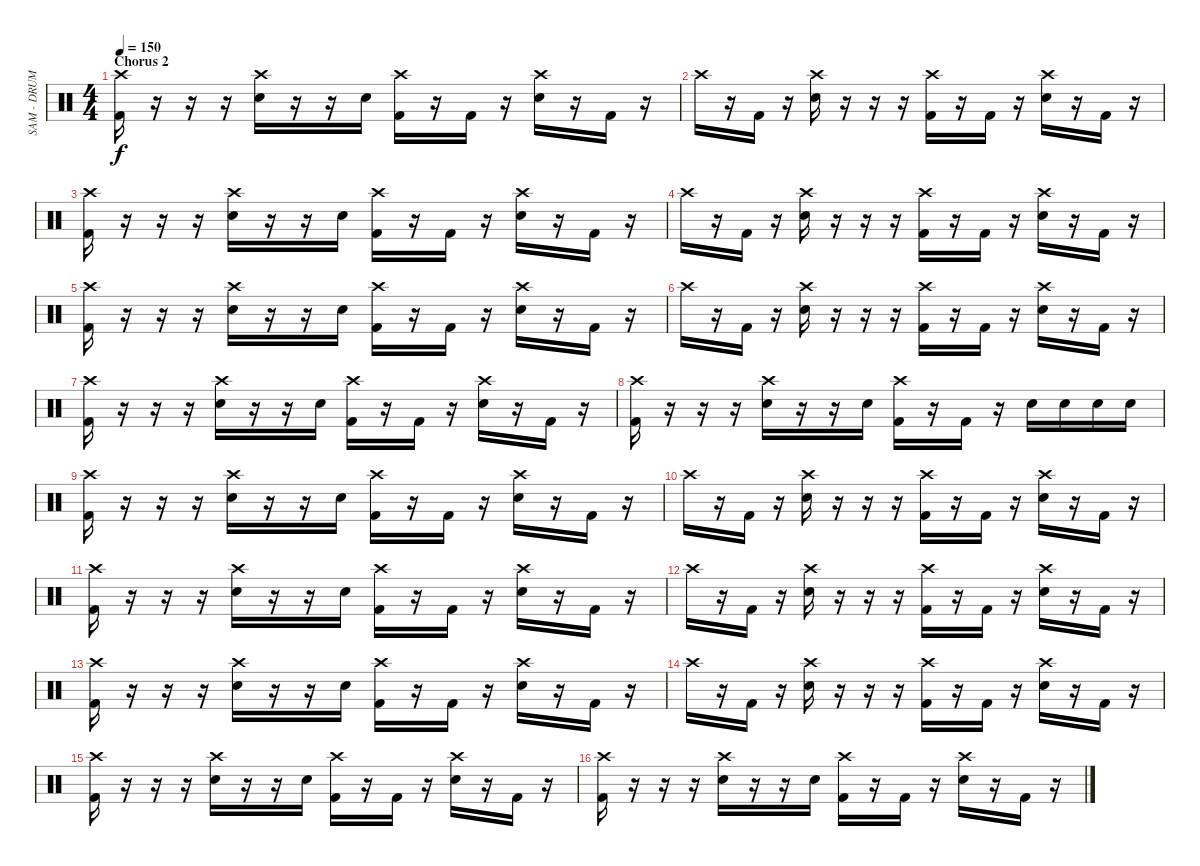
\track ("SAM - DRUMS" "SAM - DRUM") {instrument percussion}
\staff {score}
\articulation defaults
\ts (4 4)
\section ("" "Chorus 2")
\tempo 150
\clef neutral
\ks c
("Crash high (hit)" "Kick (hit) 2").16{dy f} r.16 r.16 r.16 ("Crash high (hit)" "Snare (hit) 2").16 r.16 r.16 "Snare (hit) 2".16 ("Crash high (hit)" "Kick (hit) 2").16 r.16 "Kick (hit) 2".16 r.16 ("Crash high (hit)" "Snare (hit) 2").16 r.16 "Kick (hit) 2".16 r.16 |
"Crash high (hit)".16 r.16 "Kick (hit) 2".16 r.16 ("Crash high (hit)" "Snare (hit) 2").16 r.16 r.16 r.16 ("Crash high (hit)" "Kick (hit) 2").16 r.16 "Kick (hit) 2".16 r.16 ("Crash high (hit)" "Snare (hit) 2").16 r.16 "Kick (hit) 2".16 r.16 |
("Crash high (hit)" "Kick (hit) 2").16 r.16 r.16 r.16 ("Crash high (hit)" "Snare (hit) 2").16 r.16 r.16 "Snare (hit) 2".16 ("Crash high (hit)" "Kick (hit) 2").16 r.16 "Kick (hit) 2".16 r.16 ("Crash high (hit)" "Snare (hit) 2").16 r.16 "Kick (hit) 2".16 r.16 |
"Crash high (hit)".16 r.16 "Kick (hit) 2".16 r.16 ("Crash high (hit)" "Snare (hit) 2").16 r.16 r.16 r.16 ("Crash high (hit)" "Kick (hit) 2").16 r.16 "Kick (hit) 2".16 r.16 ("Crash high (hit)" "Snare (hit) 2").16 r.16 "Kick (hit) 2".16 r.16 |
("Crash high (hit)" "Kick (hit) 2").16 r.16 r.16 r.16 ("Crash high (hit)" "Snare (hit) 2").16 r.16 r.16 "Snare (hit) 2".16 ("Crash high (hit)" "Kick (hit) 2").16 r.16 "Kick (hit) 2".16 r.16 ("Crash high (hit)" "Snare (hit) 2").16 r.16 "Kick (hit) 2".16 r.16 |
"Crash high (hit)".16 r.16 "Kick (hit) 2".16 r.16 ("Crash high (hit)" "Snare (hit) 2").16 r.16 r.16 r.16 ("Crash high (hit)" "Kick (hit) 2").16 r.16 "Kick (hit) 2".16 r.16 ("Crash high (hit)" "Snare (hit) 2").16 r.16 "Kick (hit) 2".16 r.16 |
("Crash high (hit)" "Kick (hit) 2").16 r.16 r.16 r.16 ("Crash high (hit)" "Snare (hit) 2").16 r.16 r.16 "Snare (hit) 2".16 ("Crash high (hit)" "Kick (hit) 2").16 r.16 "Kick (hit) 2".16 r.16 ("Crash high (hit)" "Snare (hit) 2").16 r.16 "Kick (hit) 2".16 r.16 |
("Crash high (hit)" "Kick (hit) 2").16 r.16 r.16 r.16 ("Crash high (hit)" "Snare (hit) 2").16 r.16 r.16 "Snare (hit) 2".16 ("Crash high (hit)" "Kick (hit) 2").16 r.16 "Kick (hit) 2".16 r.16 "Snare (hit) 2".16 "Snare (hit) 2".16 "Snare (hit) 2".16 "Snare (hit) 2".16 |
("Crash high (hit)" "Kick (hit) 2").16 r.16 r.16 r.16 ("Crash high (hit)" "Snare (hit) 2").16 r.16 r.16 "Snare (hit) 2".16 ("Crash high (hit)" "Kick (hit) 2").16 r.16 "Kick (hit) 2".16 r.16 ("Crash high (hit)" "Snare (hit) 2").16 r.16 "Kick (hit) 2".16 r.16 |
"Crash high (hit)".16 r.16 "Kick (hit) 2".16 r.16 ("Crash high (hit)" "Snare (hit) 2").16 r.16 r.16 r.16 ("Crash high (hit)" "Kick (hit) 2").16 r.16 "Kick (hit) 2".16 r.16 ("Crash high (hit)" "Snare (hit) 2").16 r.16 "Kick (hit) 2".16 r.16 |
("Crash high (hit)" "Kick (hit) 2").16 r.16 r.16 r.16 ("Crash high (hit)" "Snare (hit) 2").16 r.16 r.16 "Snare (hit) 2".16 ("Crash high (hit)" "Kick (hit) 2").16 r.16 "Kick (hit) 2".16 r.16 ("Crash high (hit)" "Snare (hit) 2").16 r.16 "Kick (hit) 2".16 r.16 |
"Crash high (hit)".16 r.16 "Kick (hit) 2".16 r.16 ("Crash high (hit)" "Snare (hit) 2").16 r.16 r.16 r.16 ("Crash high (hit)" "Kick (hit) 2").16 r.16 "Kick (hit) 2".16 r.16 ("Crash high (hit)" "Snare (hit) 2").16 r.16 "Kick (hit) 2".16 r.16 |
("Crash high (hit)" "Kick (hit) 2").16 r.16 r.16 r.16 ("Crash high (hit)" "Snare (hit) 2").16 r.16 r.16 "Snare (hit) 2".16 ("Crash high (hit)" "Kick (hit) 2").16 r.16 "Kick (hit) 2".16 r.16 ("Crash high (hit)" "Snare (hit) 2").16 r.16 "Kick (hit) 2".16 r.16 |
"Crash high (hit)".16 r.16 "Kick (hit) 2".16 r.16 ("Crash high (hit)" "Snare (hit) 2").16 r.16 r.16 r.16 ("Crash high (hit)" "Kick (hit) 2").16 r.16 "Kick (hit) 2".16 r.16 ("Crash high (hit)" "Snare (hit) 2").16 r.16 "Kick (hit) 2".16 r.16 |
("Crash high (hit)" "Kick (hit) 2").16 r.16 r.16 r.16 ("Crash high (hit)" "Snare (hit) 2").16 r.16 r.16 "Snare (hit) 2".16 ("Crash high (hit)" "Kick (hit) 2").16 r.16 "Kick (hit) 2".16 r.16 ("Crash high (hit)" "Snare (hit) 2").16 r.16 "Kick (hit) 2".16 r.16 |
("Crash high (hit)" "Kick (hit) 2").16 r.16 r.16 r.16 ("Crash high (hit)" "Snare (hit) 2").16 r.16 r.16 "Snare (hit) 2".16 ("Crash high (hit)" "Kick (hit) 2").16 r.16 "Kick (hit) 2".16 r.16 ("Crash high (hit)" "Snare (hit) 2").16 r.16 "Kick (hit) 2".16 r.16
